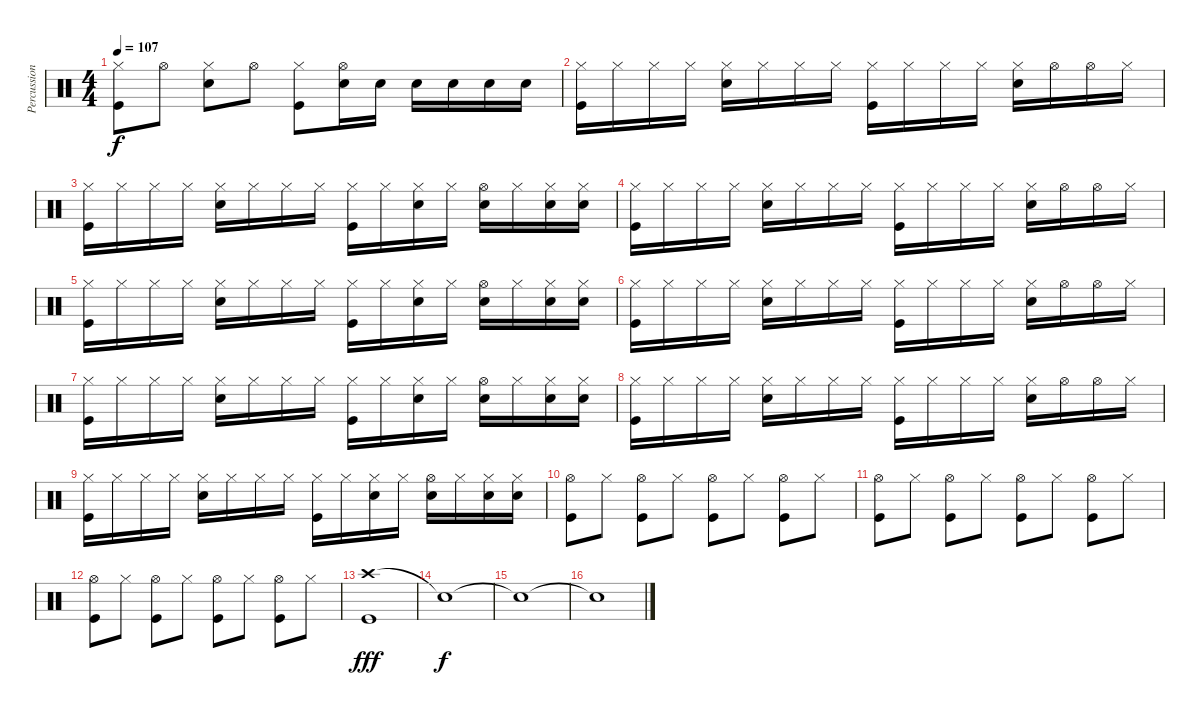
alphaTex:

\track ("Percussion" "Percussion") {instrument percussion}
\staff {score}
\articulation defaults
\ts (4 4)
\tempo 107
\clef neutral
\ks c
("Hi-Hat (closed)" "Kick (hit)").8{dy f} "Hi-Hat (open)".8 ("Hi-Hat (closed)" "Snare (hit) 2").8 "Hi-Hat (open)".8 ("Hi-Hat (closed)" "Kick (hit)").8 ("Hi-Hat (open)" "Snare (hit) 2").16 "Snare (hit) 2".16 "Snare (hit) 2".16 "Snare (hit) 2".16 "Snare (hit) 2".16 "Snare (hit) 2".16 |
("Hi-Hat (closed)" "Kick (hit)").16 "Hi-Hat (closed)".16 "Hi-Hat (closed)".16 "Hi-Hat (closed)".16 ("Hi-Hat (closed)" "Snare (hit) 2").16 "Hi-Hat (closed)".16 "Hi-Hat (closed)".16 "Hi-Hat (closed)".16 ("Hi-Hat (closed)" "Kick (hit)").16 "Hi-Hat (closed)".16 "Hi-Hat (closed)".16 "Hi-Hat (closed)".16 ("Hi-Hat (closed)" "Snare (hit) 2").16 "Hi-Hat (open)".16 "Hi-Hat (open)".16 "Hi-Hat (closed)".16 |
("Hi-Hat (closed)" "Kick (hit)").16 "Hi-Hat (closed)".16 "Hi-Hat (closed)".16 "Hi-Hat (closed)".16 ("Hi-Hat (closed)" "Snare (hit) 2").16 "Hi-Hat (closed)".16 "Hi-Hat (closed)".16 "Hi-Hat (closed)".16 ("Hi-Hat (closed)" "Kick (hit)").16 "Hi-Hat (closed)".16 ("Hi-Hat (closed)" "Snare (hit) 2").16 "Hi-Hat (closed)".16 ("Hi-Hat (open)" "Snare (hit) 2").16 "Hi-Hat (closed)".16 ("Hi-Hat (closed)" "Snare (hit) 2").16 ("Hi-Hat (closed)" "Snare (hit) 2").16 |
("Hi-Hat (closed)" "Kick (hit)").16 "Hi-Hat (closed)".16 "Hi-Hat (closed)".16 "Hi-Hat (closed)".16 ("Hi-Hat (closed)" "Snare (hit) 2").16 "Hi-Hat (closed)".16 "Hi-Hat (closed)".16 "Hi-Hat (closed)".16 ("Hi-Hat (closed)" "Kick (hit)").16 "Hi-Hat (closed)".16 "Hi-Hat (closed)".16 "Hi-Hat (closed)".16 ("Hi-Hat (closed)" "Snare (hit) 2").16 "Hi-Hat (open)".16 "Hi-Hat (open)".16 "Hi-Hat (closed)".16 |
("Hi-Hat (closed)" "Kick (hit)").16 "Hi-Hat (closed)".16 "Hi-Hat (closed)".16 "Hi-Hat (closed)".16 ("Hi-Hat (closed)" "Snare (hit) 2").16 "Hi-Hat (closed)".16 "Hi-Hat (closed)".16 "Hi-Hat (closed)".16 ("Hi-Hat (closed)" "Kick (hit)").16 "Hi-Hat (closed)".16 ("Hi-Hat (closed)" "Snare (hit) 2").16 "Hi-Hat (closed)".16 ("Hi-Hat (open)" "Snare (hit) 2").16 "Hi-Hat (closed)".16 ("Hi-Hat (closed)" "Snare (hit) 2").16 ("Hi-Hat (closed)" "Snare (hit) 2").16 |
("Hi-Hat (closed)" "Kick (hit)").16 "Hi-Hat (closed)".16 "Hi-Hat (closed)".16 "Hi-Hat (closed)".16 ("Hi-Hat (closed)" "Snare (hit) 2").16 "Hi-Hat (closed)".16 "Hi-Hat (closed)".16 "Hi-Hat (closed)".16 ("Hi-Hat (closed)" "Kick (hit)").16 "Hi-Hat (closed)".16 "Hi-Hat (closed)".16 "Hi-Hat (closed)".16 ("Hi-Hat (closed)" "Snare (hit) 2").16 "Hi-Hat (open)".16 "Hi-Hat (open)".16 "Hi-Hat (closed)".16 |
("Hi-Hat (closed)" "Kick (hit)").16 "Hi-Hat (closed)".16 "Hi-Hat (closed)".16 "Hi-Hat (closed)".16 ("Hi-Hat (closed)" "Snare (hit) 2").16 "Hi-Hat (closed)".16 "Hi-Hat (closed)".16 "Hi-Hat (closed)".16 ("Hi-Hat (closed)" "Kick (hit)").16 "Hi-Hat (closed)".16 ("Hi-Hat (closed)" "Snare (hit) 2").16 "Hi-Hat (closed)".16 ("Hi-Hat (open)" "Snare (hit) 2").16 "Hi-Hat (closed)".16 ("Hi-Hat (closed)" "Snare (hit) 2").16 ("Hi-Hat (closed)" "Snare (hit) 2").16 |
("Hi-Hat (closed)" "Kick (hit)").16 "Hi-Hat (closed)".16 "Hi-Hat (closed)".16 "Hi-Hat (closed)".16 ("Hi-Hat (closed)" "Snare (hit) 2").16 "Hi-Hat (closed)".16 "Hi-Hat (closed)".16 "Hi-Hat (closed)".16 ("Hi-Hat (closed)" "Kick (hit)").16 "Hi-Hat (closed)".16 "Hi-Hat (closed)".16 "Hi-Hat (closed)".16 ("Hi-Hat (closed)" "Snare (hit) 2").16 "Hi-Hat (open)".16 "Hi-Hat (open)".16 "Hi-Hat (closed)".16 |
("Hi-Hat (closed)" "Kick (hit)").16 "Hi-Hat (closed)".16 "Hi-Hat (closed)".16 "Hi-Hat (closed)".16 ("Hi-Hat (closed)" "Snare (hit) 2").16 "Hi-Hat (closed)".16 "Hi-Hat (closed)".16 "Hi-Hat (closed)".16 ("Hi-Hat (closed)" "Kick (hit)").16 "Hi-Hat (closed)".16 ("Hi-Hat (closed)" "Snare (hit) 2").16 "Hi-Hat (closed)".16 ("Hi-Hat (open)" "Snare (hit) 2").16 "Hi-Hat (closed)".16 ("Hi-Hat (closed)" "Snare (hit) 2").16 ("Hi-Hat (closed)" "Snare (hit) 2").16 |
("Hi-Hat (open)" "Kick (hit)").8 "Hi-Hat (closed)".8 ("Hi-Hat (open)" "Kick (hit)").8 "Hi-Hat (closed)".8 ("Hi-Hat (open)" "Kick (hit)").8 "Hi-Hat (closed)".8 ("Hi-Hat (open)" "Kick (hit)").8 "Hi-Hat (closed)".8 |
("Hi-Hat (open)" "Kick (hit)").8 "Hi-Hat (closed)".8 ("Hi-Hat (open)" "Kick (hit)").8 "Hi-Hat (closed)".8 ("Hi-Hat (open)" "Kick (hit)").8 "Hi-Hat (closed)".8 ("Hi-Hat (open)" "Kick (hit)").8 "Hi-Hat (closed)".8 |
("Hi-Hat (open)" "Kick (hit)").8 "Hi-Hat (closed)".8 ("Hi-Hat (open)" "Kick (hit)").8 "Hi-Hat (closed)".8 ("Hi-Hat (open)" "Kick (hit)").8 "Hi-Hat (closed)".8 ("Hi-Hat (open)" "Kick (hit)").8 "Hi-Hat (closed)".8 |
("Crash high (hit)" "Kick (hit)").1{dy fff} |
"Snare (hit)"{t}.1{dy f} |
"Snare (hit)"{t}.1 |
"Snare (hit)"{t}.1
